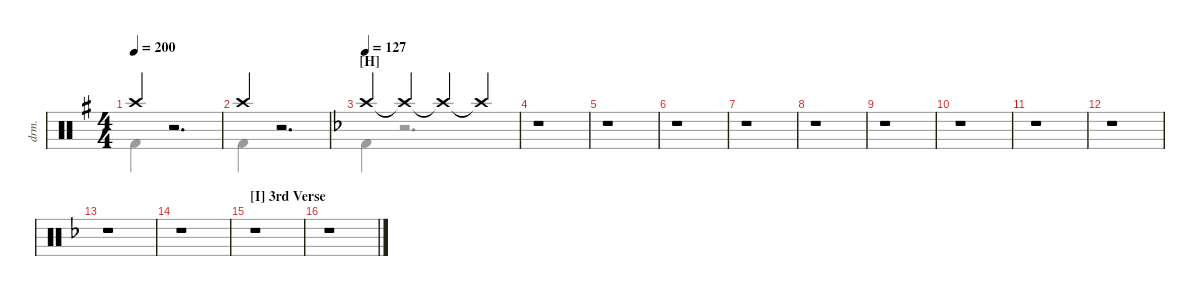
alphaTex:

\defaultSystemsLayout 4
\hideDynamics
\bracketExtendMode nobrackets
\track ("Drums" "drm.") {instrument percussion}
\staff {score}
\articulation defaults
\voice
\ts (4 4)
\tempo 200
\clef neutral
\ks g "Crash high (hit)"{acc forcenatural}.4{dy mf}
r.2{d} |
"Crash high (hit)"{acc forcenatural}.4 r.2{d} |
\section ("H" "")
\tempo 127
\scale
1.86114
\ks f "Crash high (hit)"{acc forcenatural}.4 "Crash high (hit)"{t acc forcenatural}.4 "Crash high (hit)"{t acc forcenatural}.4 "Crash high (hit)"{t acc forcenatural}.4
|
\scale
0.657258 r.1 |
\scale
0.94328 r.1 |
\scale
0.94328 r.1 |
\scale
0.94328 r.1 |
\scale
0.94328 r.1 |
\scale
0.94328 r.1 |
\scale
0.94328 r.1 |
\scale
0.94328 r.1 |
\scale
0.94328 r.1 |
\scale
0.94328 r.1 |
\scale
0.992088 r.1 |
\section ("I" "3rd Verse")
r.1 |
r.1
\voice
\clef neutral
\ottava regular
\simile none
\ks g "Kick (hit) 2"{acc forcenatural}.4{dy mf}
r.2{d} |
"Kick (hit) 2"{acc forcenatural}.4 r.2{d} |
\scale
1.86114
\ks f "Kick (hit) 2"{acc forcenatural}.4
r.2{d} |
\scale
0.657258 |
\scale
0.94328 |
\scale
0.94328 |
\scale
0.94328 |
\scale
0.94328 |
\scale
0.94328 |
\scale
0.94328 |
\scale
0.94328 |
\scale
0.94328 |
\scale
0.94328 |
\scale
0.992088 |
|
